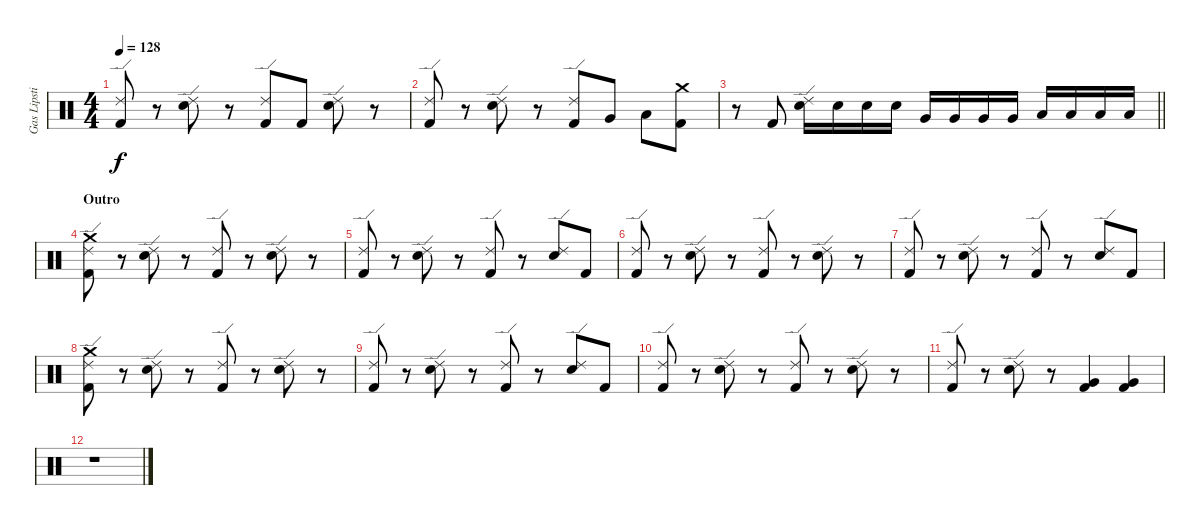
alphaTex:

\track ("Gas Lipstick (Drums)" "Gas Lipsti") {instrument percussion}
\staff {score}
\articulation defaults
\ts (4 4)
\tempo 128
\clef neutral
\ks c
("Ride (edge) 2" "Kick (hit) 2").8{dy f} r.8 ("Ride (edge) 2" "Snare (hit) 2").8 r.8 ("Ride (edge) 2" "Kick (hit) 2").8 "Kick (hit) 2".8 ("Ride (edge) 2" "Snare (hit) 2").8 r.8 |
("Ride (edge) 2" "Kick (hit) 2").8 r.8 ("Ride (edge) 2" "Snare (hit) 2").8 r.8 ("Ride (edge) 2" "Kick (hit) 2").8 "Very Low Tom (hit)".8 "Low Floor Tom (hit)".8 ("Crash medium (hit)" "Kick (hit) 2").8 |
\barLineRight lightlight
r.8 "Kick (hit) 2".8 ("Ride (edge) 2" "Snare (hit) 2").16 "Snare (hit) 2".16 "Snare (hit) 2".16 "Snare (hit) 2".16 "Very Low Tom (hit)".16 "Very Low Tom (hit)".16 "Very Low Tom (hit)".16 "Very Low Tom (hit)".16 "Low Floor Tom (hit)".16 "Low Floor Tom (hit)".16 "Low Floor Tom (hit)".16 "Low Floor Tom (hit)".16 |
\section ("" "Outro")
("Crash medium (hit)" "Ride (edge) 2" "Kick (hit) 2").8 r.8 ("Ride (edge) 2" "Snare (hit) 2").8 r.8 ("Ride (edge) 2" "Kick (hit) 2").8 r.8 ("Ride (edge) 2" "Snare (hit) 2").8 r.8 |
("Ride (edge) 2" "Kick (hit) 2").8 r.8 ("Ride (edge) 2" "Snare (hit) 2").8 r.8 ("Ride (edge) 2" "Kick (hit) 2").8 r.8 ("Ride (edge) 2" "Snare (hit) 2").8 "Kick (hit) 2".8 |
("Ride (edge) 2" "Kick (hit) 2").8 r.8 ("Ride (edge) 2" "Snare (hit) 2").8 r.8 ("Ride (edge) 2" "Kick (hit) 2").8 r.8 ("Ride (edge) 2" "Snare (hit) 2").8 r.8 |
("Ride (edge) 2" "Kick (hit) 2").8 r.8 ("Ride (edge) 2" "Snare (hit) 2").8 r.8 ("Ride (edge) 2" "Kick (hit) 2").8 r.8 ("Ride (edge) 2" "Snare (hit) 2").8 "Kick (hit) 2".8 |
("Crash medium (hit)" "Ride (edge) 2" "Kick (hit) 2").8 r.8 ("Ride (edge) 2" "Snare (hit) 2").8 r.8 ("Ride (edge) 2" "Kick (hit) 2").8 r.8 ("Ride (edge) 2" "Snare (hit) 2").8 r.8 |
("Ride (edge) 2" "Kick (hit) 2").8 r.8 ("Ride (edge) 2" "Snare (hit) 2").8 r.8 ("Ride (edge) 2" "Kick (hit) 2").8 r.8 ("Ride (edge) 2" "Snare (hit) 2").8 "Kick (hit) 2".8 |
("Ride (edge) 2" "Kick (hit) 2").8 r.8 ("Ride (edge) 2" "Snare (hit) 2").8 r.8 ("Ride (edge) 2" "Kick (hit) 2").8 r.8 ("Ride (edge) 2" "Snare (hit) 2").8 r.8 |
("Ride (edge) 2" "Kick (hit) 2").8 r.8 ("Ride (edge) 2" "Snare (hit) 2").8 r.8 ("Very Low Tom (hit)" "Kick (hit) 2").4 ("Very Low Tom (hit)" "Kick (hit) 2").4 |
r.1
